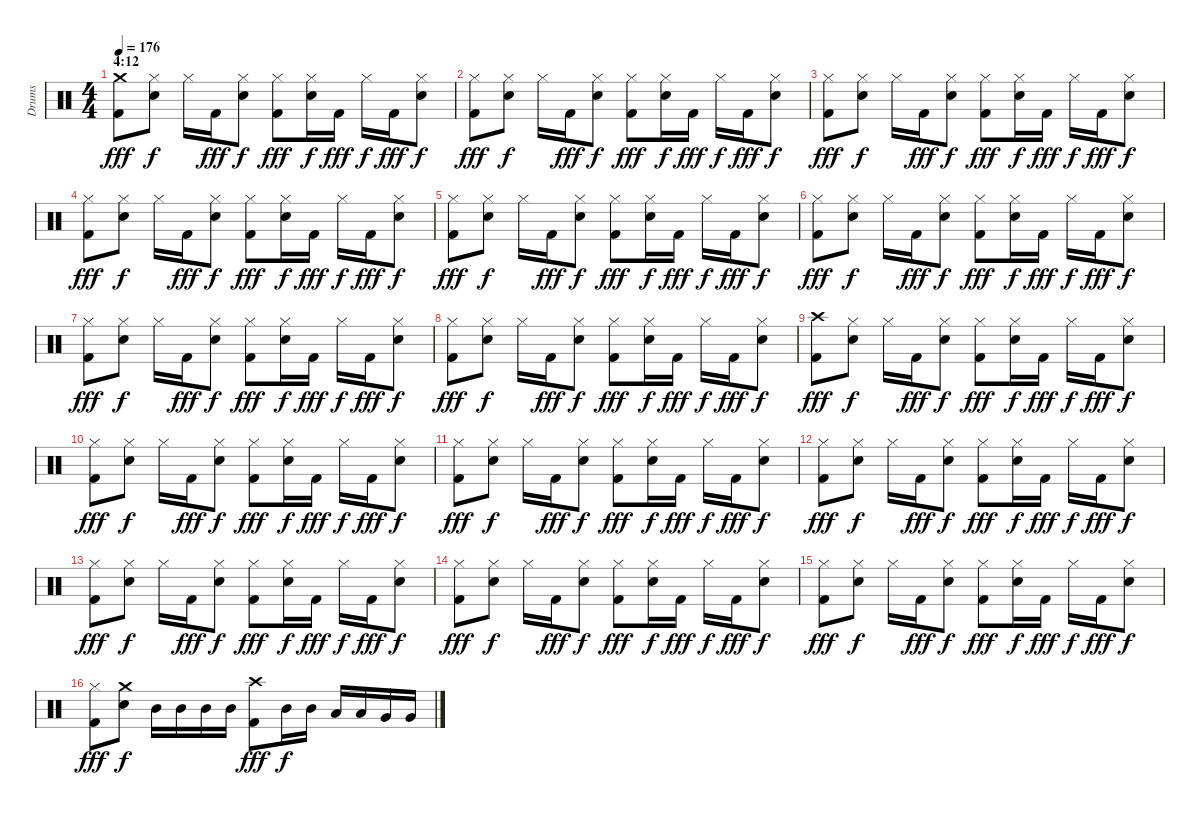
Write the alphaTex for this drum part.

\track ("Drums" "Drums") {instrument percussion}
\staff {score}
\articulation defaults
\ts (4 4)
\section ("" "4:12")
\tempo 176
\clef neutral
\ks c
("Crash medium (hit)" "Kick (hit) 2").8{dy fff} ("Hi-Hat (closed)" "Snare (hit) 2").8{dy f} "Hi-Hat (closed)".16 "Kick (hit) 2".16{dy fff} ("Hi-Hat (closed)" "Snare (hit) 2").8{dy f} ("Hi-Hat (closed)" "Kick (hit) 2").8{dy fff} ("Hi-Hat (closed)" "Snare (hit) 2").16{dy f} "Kick (hit) 2".16{dy fff} "Hi-Hat (closed)".16{dy f} "Kick (hit) 2".16{dy fff} ("Hi-Hat (closed)" "Snare (hit) 2").8{dy f} |
("Hi-Hat (closed)" "Kick (hit) 2").8{dy fff} ("Hi-Hat (closed)" "Snare (hit) 2").8{dy f} "Hi-Hat (closed)".16 "Kick (hit) 2".16{dy fff} ("Hi-Hat (closed)" "Snare (hit) 2").8{dy f} ("Hi-Hat (closed)" "Kick (hit) 2").8{dy fff} ("Hi-Hat (closed)" "Snare (hit) 2").16{dy f} "Kick (hit) 2".16{dy fff} "Hi-Hat (closed)".16{dy f} "Kick (hit) 2".16{dy fff} ("Hi-Hat (closed)" "Snare (hit) 2").8{dy f} |
("Hi-Hat (closed)" "Kick (hit) 2").8{dy fff} ("Hi-Hat (closed)" "Snare (hit) 2").8{dy f} "Hi-Hat (closed)".16 "Kick (hit) 2".16{dy fff} ("Hi-Hat (closed)" "Snare (hit) 2").8{dy f} ("Hi-Hat (closed)" "Kick (hit) 2").8{dy fff} ("Hi-Hat (closed)" "Snare (hit) 2").16{dy f} "Kick (hit) 2".16{dy fff} "Hi-Hat (closed)".16{dy f} "Kick (hit) 2".16{dy fff} ("Hi-Hat (closed)" "Snare (hit) 2").8{dy f} |
("Hi-Hat (closed)" "Kick (hit) 2").8{dy fff} ("Hi-Hat (closed)" "Snare (hit) 2").8{dy f} "Hi-Hat (closed)".16 "Kick (hit) 2".16{dy fff} ("Hi-Hat (closed)" "Snare (hit) 2").8{dy f} ("Hi-Hat (closed)" "Kick (hit) 2").8{dy fff} ("Hi-Hat (closed)" "Snare (hit) 2").16{dy f} "Kick (hit) 2".16{dy fff} "Hi-Hat (closed)".16{dy f} "Kick (hit) 2".16{dy fff} ("Hi-Hat (closed)" "Snare (hit) 2").8{dy f} |
("Hi-Hat (closed)" "Kick (hit) 2").8{dy fff} ("Hi-Hat (closed)" "Snare (hit) 2").8{dy f} "Hi-Hat (closed)".16 "Kick (hit) 2".16{dy fff} ("Hi-Hat (closed)" "Snare (hit) 2").8{dy f} ("Hi-Hat (closed)" "Kick (hit) 2").8{dy fff} ("Hi-Hat (closed)" "Snare (hit) 2").16{dy f} "Kick (hit) 2".16{dy fff} "Hi-Hat (closed)".16{dy f} "Kick (hit) 2".16{dy fff} ("Hi-Hat (closed)" "Snare (hit) 2").8{dy f} |
("Hi-Hat (closed)" "Kick (hit) 2").8{dy fff} ("Hi-Hat (closed)" "Snare (hit) 2").8{dy f} "Hi-Hat (closed)".16 "Kick (hit) 2".16{dy fff} ("Hi-Hat (closed)" "Snare (hit) 2").8{dy f} ("Hi-Hat (closed)" "Kick (hit) 2").8{dy fff} ("Hi-Hat (closed)" "Snare (hit) 2").16{dy f} "Kick (hit) 2".16{dy fff} "Hi-Hat (closed)".16{dy f} "Kick (hit) 2".16{dy fff} ("Hi-Hat (closed)" "Snare (hit) 2").8{dy f} |
("Hi-Hat (closed)" "Kick (hit) 2").8{dy fff} ("Hi-Hat (closed)" "Snare (hit) 2").8{dy f} "Hi-Hat (closed)".16 "Kick (hit) 2".16{dy fff} ("Hi-Hat (closed)" "Snare (hit) 2").8{dy f} ("Hi-Hat (closed)" "Kick (hit) 2").8{dy fff} ("Hi-Hat (closed)" "Snare (hit) 2").16{dy f} "Kick (hit) 2".16{dy fff} "Hi-Hat (closed)".16{dy f} "Kick (hit) 2".16{dy fff} ("Hi-Hat (closed)" "Snare (hit) 2").8{dy f} |
("Hi-Hat (closed)" "Kick (hit) 2").8{dy fff} ("Hi-Hat (closed)" "Snare (hit) 2").8{dy f} "Hi-Hat (closed)".16 "Kick (hit) 2".16{dy fff} ("Hi-Hat (closed)" "Snare (hit) 2").8{dy f} ("Hi-Hat (closed)" "Kick (hit) 2").8{dy fff} ("Hi-Hat (closed)" "Snare (hit) 2").16{dy f} "Kick (hit) 2".16{dy fff} "Hi-Hat (closed)".16{dy f} "Kick (hit) 2".16{dy fff} ("Hi-Hat (closed)" "Snare (hit) 2").8{dy f} |
("Crash high (hit)" "Kick (hit) 2").8{dy fff} ("Hi-Hat (closed)" "Snare (hit) 2").8{dy f} "Hi-Hat (closed)".16 "Kick (hit) 2".16{dy fff} ("Hi-Hat (closed)" "Snare (hit) 2").8{dy f} ("Hi-Hat (closed)" "Kick (hit) 2").8{dy fff} ("Hi-Hat (closed)" "Snare (hit) 2").16{dy f} "Kick (hit) 2".16{dy fff} "Hi-Hat (closed)".16{dy f} "Kick (hit) 2".16{dy fff} ("Hi-Hat (closed)" "Snare (hit) 2").8{dy f} |
("Hi-Hat (closed)" "Kick (hit) 2").8{dy fff} ("Hi-Hat (closed)" "Snare (hit) 2").8{dy f} "Hi-Hat (closed)".16 "Kick (hit) 2".16{dy fff} ("Hi-Hat (closed)" "Snare (hit) 2").8{dy f} ("Hi-Hat (closed)" "Kick (hit) 2").8{dy fff} ("Hi-Hat (closed)" "Snare (hit) 2").16{dy f} "Kick (hit) 2".16{dy fff} "Hi-Hat (closed)".16{dy f} "Kick (hit) 2".16{dy fff} ("Hi-Hat (closed)" "Snare (hit) 2").8{dy f} |
("Hi-Hat (closed)" "Kick (hit) 2").8{dy fff} ("Hi-Hat (closed)" "Snare (hit) 2").8{dy f} "Hi-Hat (closed)".16 "Kick (hit) 2".16{dy fff} ("Hi-Hat (closed)" "Snare (hit) 2").8{dy f} ("Hi-Hat (closed)" "Kick (hit) 2").8{dy fff} ("Hi-Hat (closed)" "Snare (hit) 2").16{dy f} "Kick (hit) 2".16{dy fff} "Hi-Hat (closed)".16{dy f} "Kick (hit) 2".16{dy fff} ("Hi-Hat (closed)" "Snare (hit) 2").8{dy f} |
("Hi-Hat (closed)" "Kick (hit) 2").8{dy fff} ("Hi-Hat (closed)" "Snare (hit) 2").8{dy f} "Hi-Hat (closed)".16 "Kick (hit) 2".16{dy fff} ("Hi-Hat (closed)" "Snare (hit) 2").8{dy f} ("Hi-Hat (closed)" "Kick (hit) 2").8{dy fff} ("Hi-Hat (closed)" "Snare (hit) 2").16{dy f} "Kick (hit) 2".16{dy fff} "Hi-Hat (closed)".16{dy f} "Kick (hit) 2".16{dy fff} ("Hi-Hat (closed)" "Snare (hit) 2").8{dy f} |
("Hi-Hat (closed)" "Kick (hit) 2").8{dy fff} ("Hi-Hat (closed)" "Snare (hit) 2").8{dy f} "Hi-Hat (closed)".16 "Kick (hit) 2".16{dy fff} ("Hi-Hat (closed)" "Snare (hit) 2").8{dy f} ("Hi-Hat (closed)" "Kick (hit) 2").8{dy fff} ("Hi-Hat (closed)" "Snare (hit) 2").16{dy f} "Kick (hit) 2".16{dy fff} "Hi-Hat (closed)".16{dy f} "Kick (hit) 2".16{dy fff} ("Hi-Hat (closed)" "Snare (hit) 2").8{dy f} |
("Hi-Hat (closed)" "Kick (hit) 2").8{dy fff} ("Hi-Hat (closed)" "Snare (hit) 2").8{dy f} "Hi-Hat (closed)".16 "Kick (hit) 2".16{dy fff} ("Hi-Hat (closed)" "Snare (hit) 2").8{dy f} ("Hi-Hat (closed)" "Kick (hit) 2").8{dy fff} ("Hi-Hat (closed)" "Snare (hit) 2").16{dy f} "Kick (hit) 2".16{dy fff} "Hi-Hat (closed)".16{dy f} "Kick (hit) 2".16{dy fff} ("Hi-Hat (closed)" "Snare (hit) 2").8{dy f} |
("Hi-Hat (closed)" "Kick (hit) 2").8{dy fff} ("Hi-Hat (closed)" "Snare (hit) 2").8{dy f} "Hi-Hat (closed)".16 "Kick (hit) 2".16{dy fff} ("Hi-Hat (closed)" "Snare (hit) 2").8{dy f} ("Hi-Hat (closed)" "Kick (hit) 2").8{dy fff} ("Hi-Hat (closed)" "Snare (hit) 2").16{dy f} "Kick (hit) 2".16{dy fff} "Hi-Hat (closed)".16{dy f} "Kick (hit) 2".16{dy fff} ("Hi-Hat (closed)" "Snare (hit) 2").8{dy f} |
("Hi-Hat (closed)" "Kick (hit) 2").8{dy fff} ("Crash medium (hit)" "Snare (hit) 2").8{dy f} "Mid Tom (hit)".16 "Mid Tom (hit)".16 "Mid Tom (hit)".16 "Mid Tom (hit)".16 ("Crash high (hit)" "Kick (hit) 2").8{dy fff} "Mid Tom (hit)".16{dy f} "Mid Tom (hit)".16 "Low Tom (hit)".16 "Low Tom (hit)".16 "Very Low Tom (hit)".16 "Very Low Tom (hit)".16
